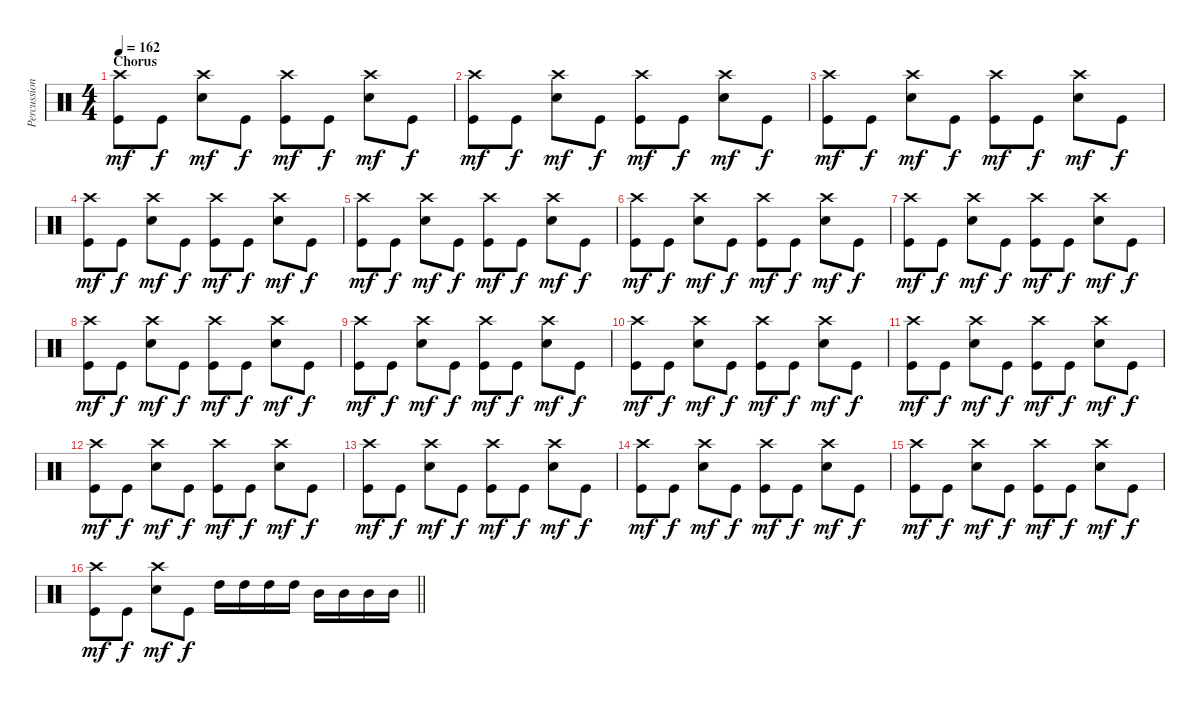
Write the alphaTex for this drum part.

\track ("Percussions" "Percussion") {instrument percussion}
\staff {score}
\articulation defaults
\ts (4 4)
\section ("" "Chorus")
\tempo 162
\clef neutral
\ks c
("Crash high (hit)" "Kick (hit)").8{dy mf} "Kick (hit)".8{dy f} ("Crash high (hit)" "Electric Snare (hit)").8{dy mf} "Kick (hit)".8{dy f} ("Crash high (hit)" "Kick (hit)").8{dy mf} "Kick (hit)".8{dy f} ("Crash high (hit)" "Electric Snare (hit)").8{dy mf} "Kick (hit)".8{dy f} |
("Crash high (hit)" "Kick (hit)").8{dy mf} "Kick (hit)".8{dy f} ("Crash high (hit)" "Electric Snare (hit)").8{dy mf} "Kick (hit)".8{dy f} ("Crash high (hit)" "Kick (hit)").8{dy mf} "Kick (hit)".8{dy f} ("Crash high (hit)" "Electric Snare (hit)").8{dy mf} "Kick (hit)".8{dy f} |
("Crash high (hit)" "Kick (hit)").8{dy mf} "Kick (hit)".8{dy f} ("Crash high (hit)" "Electric Snare (hit)").8{dy mf} "Kick (hit)".8{dy f} ("Crash high (hit)" "Kick (hit)").8{dy mf} "Kick (hit)".8{dy f} ("Crash high (hit)" "Electric Snare (hit)").8{dy mf} "Kick (hit)".8{dy f} |
("Crash high (hit)" "Kick (hit)").8{dy mf} "Kick (hit)".8{dy f} ("Crash high (hit)" "Electric Snare (hit)").8{dy mf} "Kick (hit)".8{dy f} ("Crash high (hit)" "Kick (hit)").8{dy mf} "Kick (hit)".8{dy f} ("Crash high (hit)" "Electric Snare (hit)").8{dy mf} "Kick (hit)".8{dy f} |
("Crash high (hit)" "Kick (hit)").8{dy mf} "Kick (hit)".8{dy f} ("Crash high (hit)" "Electric Snare (hit)").8{dy mf} "Kick (hit)".8{dy f} ("Crash high (hit)" "Kick (hit)").8{dy mf} "Kick (hit)".8{dy f} ("Crash high (hit)" "Electric Snare (hit)").8{dy mf} "Kick (hit)".8{dy f} |
("Crash high (hit)" "Kick (hit)").8{dy mf} "Kick (hit)".8{dy f} ("Crash high (hit)" "Electric Snare (hit)").8{dy mf} "Kick (hit)".8{dy f} ("Crash high (hit)" "Kick (hit)").8{dy mf} "Kick (hit)".8{dy f} ("Crash high (hit)" "Electric Snare (hit)").8{dy mf} "Kick (hit)".8{dy f} |
("Crash high (hit)" "Kick (hit)").8{dy mf} "Kick (hit)".8{dy f} ("Crash high (hit)" "Electric Snare (hit)").8{dy mf} "Kick (hit)".8{dy f} ("Crash high (hit)" "Kick (hit)").8{dy mf} "Kick (hit)".8{dy f} ("Crash high (hit)" "Electric Snare (hit)").8{dy mf} "Kick (hit)".8{dy f} |
("Crash high (hit)" "Kick (hit)").8{dy mf} "Kick (hit)".8{dy f} ("Crash high (hit)" "Electric Snare (hit)").8{dy mf} "Kick (hit)".8{dy f} ("Crash high (hit)" "Kick (hit)").8{dy mf} "Kick (hit)".8{dy f} ("Crash high (hit)" "Electric Snare (hit)").8{dy mf} "Kick (hit)".8{dy f} |
("Crash high (hit)" "Kick (hit)").8{dy mf} "Kick (hit)".8{dy f} ("Crash high (hit)" "Electric Snare (hit)").8{dy mf} "Kick (hit)".8{dy f} ("Crash high (hit)" "Kick (hit)").8{dy mf} "Kick (hit)".8{dy f} ("Crash high (hit)" "Electric Snare (hit)").8{dy mf} "Kick (hit)".8{dy f} |
("Crash high (hit)" "Kick (hit)").8{dy mf} "Kick (hit)".8{dy f} ("Crash high (hit)" "Electric Snare (hit)").8{dy mf} "Kick (hit)".8{dy f} ("Crash high (hit)" "Kick (hit)").8{dy mf} "Kick (hit)".8{dy f} ("Crash high (hit)" "Electric Snare (hit)").8{dy mf} "Kick (hit)".8{dy f} |
("Crash high (hit)" "Kick (hit)").8{dy mf} "Kick (hit)".8{dy f} ("Crash high (hit)" "Electric Snare (hit)").8{dy mf} "Kick (hit)".8{dy f} ("Crash high (hit)" "Kick (hit)").8{dy mf} "Kick (hit)".8{dy f} ("Crash high (hit)" "Electric Snare (hit)").8{dy mf} "Kick (hit)".8{dy f} |
("Crash high (hit)" "Kick (hit)").8{dy mf} "Kick (hit)".8{dy f} ("Crash high (hit)" "Electric Snare (hit)").8{dy mf} "Kick (hit)".8{dy f} ("Crash high (hit)" "Kick (hit)").8{dy mf} "Kick (hit)".8{dy f} ("Crash high (hit)" "Electric Snare (hit)").8{dy mf} "Kick (hit)".8{dy f} |
("Crash high (hit)" "Kick (hit)").8{dy mf} "Kick (hit)".8{dy f} ("Crash high (hit)" "Electric Snare (hit)").8{dy mf} "Kick (hit)".8{dy f} ("Crash high (hit)" "Kick (hit)").8{dy mf} "Kick (hit)".8{dy f} ("Crash high (hit)" "Electric Snare (hit)").8{dy mf} "Kick (hit)".8{dy f} |
("Crash high (hit)" "Kick (hit)").8{dy mf} "Kick (hit)".8{dy f} ("Crash high (hit)" "Electric Snare (hit)").8{dy mf} "Kick (hit)".8{dy f} ("Crash high (hit)" "Kick (hit)").8{dy mf} "Kick (hit)".8{dy f} ("Crash high (hit)" "Electric Snare (hit)").8{dy mf} "Kick (hit)".8{dy f} |
("Crash high (hit)" "Kick (hit)").8{dy mf} "Kick (hit)".8{dy f} ("Crash high (hit)" "Electric Snare (hit)").8{dy mf} "Kick (hit)".8{dy f} ("Crash high (hit)" "Kick (hit)").8{dy mf} "Kick (hit)".8{dy f} ("Crash high (hit)" "Electric Snare (hit)").8{dy mf} "Kick (hit)".8{dy f} |
\barLineRight lightlight
("Crash high (hit)" "Kick (hit)").8{dy mf} "Kick (hit)".8{dy f} ("Crash high (hit)" "Electric Snare (hit)").8{dy mf} "Kick (hit)".8{dy f} "High Tom (hit)".16 "High Tom (hit)".16 "High Tom (hit)".16 "High Tom (hit)".16 "Mid Tom (hit)".16 "Mid Tom (hit)".16 "Mid Tom (hit)".16 "Mid Tom (hit)".16
